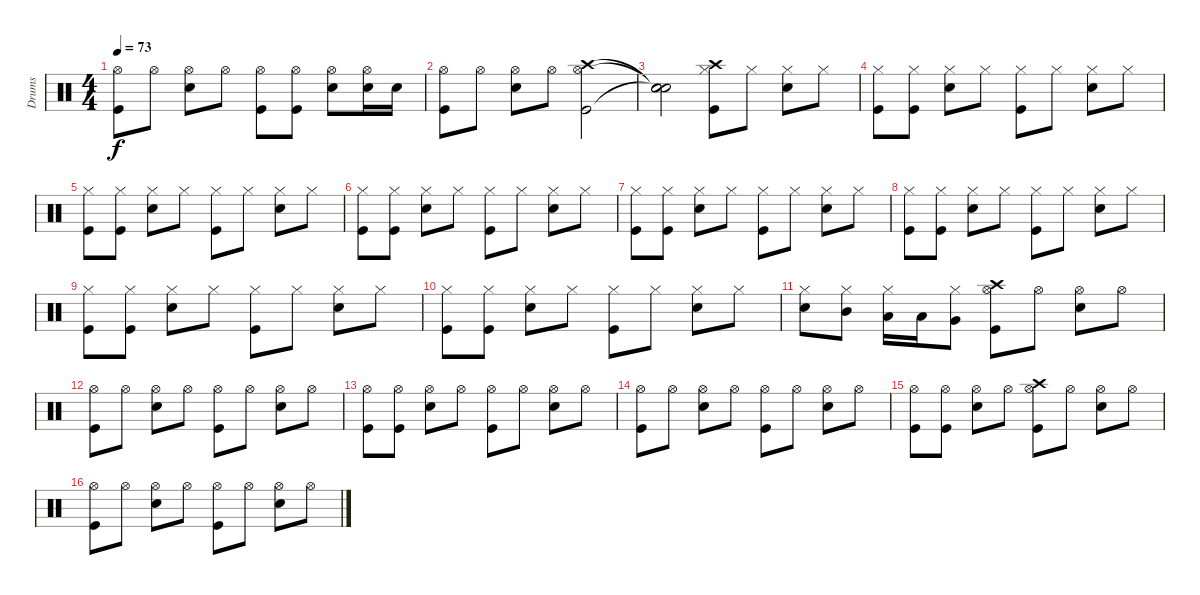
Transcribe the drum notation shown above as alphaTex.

\track ("Drums" "Drums") {instrument percussion}
\staff {score}
\articulation defaults
\ts (4 4)
\tempo 73
\clef neutral
\ks c
("Kick (hit)" "Hi-Hat (open)").8{dy f} "Hi-Hat (open)".8 ("Snare (hit) 2" "Hi-Hat (open)").8 "Hi-Hat (open)".8 ("Kick (hit)" "Hi-Hat (open)").8 ("Kick (hit)" "Hi-Hat (open)").8 ("Snare (hit) 2" "Hi-Hat (open)").8 ("Snare (hit) 2" "Hi-Hat (open)").16 "Snare (hit) 2".16 |
("Kick (hit)" "Hi-Hat (open)").8 "Hi-Hat (open)".8 ("Snare (hit) 2" "Hi-Hat (open)").8 "Hi-Hat (open)".8 ("Kick (hit)" "Hi-Hat (open)" "Crash high (hit)").2 |
("Snare (hit)"{t} "Snare (hit)"{t} "Snare (hit)"{t}).2 ("Kick (hit)" "Hi-Hat (closed)" "Crash high (hit)").8 "Hi-Hat (closed)".8 ("Snare (hit) 2" "Hi-Hat (closed)").8 "Hi-Hat (closed)".8 |
("Kick (hit)" "Hi-Hat (closed)").8 ("Kick (hit)" "Hi-Hat (closed)").8 ("Snare (hit) 2" "Hi-Hat (closed)").8 "Hi-Hat (closed)".8 ("Kick (hit)" "Hi-Hat (closed)").8 "Hi-Hat (closed)".8 ("Snare (hit) 2" "Hi-Hat (closed)").8 "Hi-Hat (closed)".8 |
("Kick (hit)" "Hi-Hat (closed)").8 ("Kick (hit)" "Hi-Hat (closed)").8 ("Snare (hit) 2" "Hi-Hat (closed)").8 "Hi-Hat (closed)".8 ("Kick (hit)" "Hi-Hat (closed)").8 "Hi-Hat (closed)".8 ("Snare (hit) 2" "Hi-Hat (closed)").8 "Hi-Hat (closed)".8 |
("Kick (hit)" "Hi-Hat (closed)").8 ("Kick (hit)" "Hi-Hat (closed)").8 ("Snare (hit) 2" "Hi-Hat (closed)").8 "Hi-Hat (closed)".8 ("Kick (hit)" "Hi-Hat (closed)").8 "Hi-Hat (closed)".8 ("Snare (hit) 2" "Hi-Hat (closed)").8 "Hi-Hat (closed)".8 |
("Kick (hit)" "Hi-Hat (closed)").8 ("Kick (hit)" "Hi-Hat (closed)").8 ("Snare (hit) 2" "Hi-Hat (closed)").8 "Hi-Hat (closed)".8 ("Kick (hit)" "Hi-Hat (closed)").8 "Hi-Hat (closed)".8 ("Snare (hit) 2" "Hi-Hat (closed)").8 "Hi-Hat (closed)".8 |
("Kick (hit)" "Hi-Hat (closed)").8 ("Kick (hit)" "Hi-Hat (closed)").8 ("Snare (hit) 2" "Hi-Hat (closed)").8 "Hi-Hat (closed)".8 ("Kick (hit)" "Hi-Hat (closed)").8 "Hi-Hat (closed)".8 ("Snare (hit) 2" "Hi-Hat (closed)").8 "Hi-Hat (closed)".8 |
("Kick (hit)" "Hi-Hat (closed)").8 ("Kick (hit)" "Hi-Hat (closed)").8 ("Snare (hit) 2" "Hi-Hat (closed)").8 "Hi-Hat (closed)".8 ("Kick (hit)" "Hi-Hat (closed)").8 "Hi-Hat (closed)".8 ("Snare (hit) 2" "Hi-Hat (closed)").8 "Hi-Hat (closed)".8 |
("Kick (hit)" "Hi-Hat (closed)").8 ("Kick (hit)" "Hi-Hat (closed)").8 ("Snare (hit) 2" "Hi-Hat (closed)").8 "Hi-Hat (closed)".8 ("Kick (hit)" "Hi-Hat (closed)").8 "Hi-Hat (closed)".8 ("Snare (hit) 2" "Hi-Hat (closed)").8 "Hi-Hat (closed)".8 |
("Snare (hit) 2" "Hi-Hat (closed)").8 ("Hi-Hat (closed)" "Mid Tom (hit)").8 ("Hi-Hat (closed)" "Low Tom (hit)").16 "Low Tom (hit)".16 ("Hi-Hat (closed)" "Very Low Tom (hit)").8 ("Kick (hit)" "Hi-Hat (open)" "Crash high (hit)").8 "Hi-Hat (open)".8 ("Snare (hit) 2" "Hi-Hat (open)").8 "Hi-Hat (open)".8 |
("Kick (hit)" "Hi-Hat (open)").8 "Hi-Hat (open)".8 ("Snare (hit) 2" "Hi-Hat (open)").8 "Hi-Hat (open)".8 ("Kick (hit)" "Hi-Hat (open)").8 "Hi-Hat (open)".8 ("Snare (hit) 2" "Hi-Hat (open)").8 "Hi-Hat (open)".8 |
("Kick (hit)" "Hi-Hat (open)").8 ("Kick (hit)" "Hi-Hat (open)").8 ("Snare (hit) 2" "Hi-Hat (open)").8 "Hi-Hat (open)".8 ("Kick (hit)" "Hi-Hat (open)").8 "Hi-Hat (open)".8 ("Snare (hit) 2" "Hi-Hat (open)").8 "Hi-Hat (open)".8 |
("Kick (hit)" "Hi-Hat (open)").8 "Hi-Hat (open)".8 ("Snare (hit) 2" "Hi-Hat (open)").8 "Hi-Hat (open)".8 ("Kick (hit)" "Hi-Hat (open)").8 "Hi-Hat (open)".8 ("Snare (hit) 2" "Hi-Hat (open)").8 "Hi-Hat (open)".8 |
("Kick (hit)" "Hi-Hat (open)").8 ("Kick (hit)" "Hi-Hat (open)").8 ("Snare (hit) 2" "Hi-Hat (open)").8 "Hi-Hat (open)".8 ("Kick (hit)" "Hi-Hat (open)" "Crash high (hit)").8 "Hi-Hat (open)".8 ("Snare (hit) 2" "Hi-Hat (open)").8 "Hi-Hat (open)".8 |
("Kick (hit)" "Hi-Hat (open)").8 "Hi-Hat (open)".8 ("Snare (hit) 2" "Hi-Hat (open)").8 "Hi-Hat (open)".8 ("Kick (hit)" "Hi-Hat (open)").8 "Hi-Hat (open)".8 ("Snare (hit) 2" "Hi-Hat (open)").8 "Hi-Hat (open)".8
